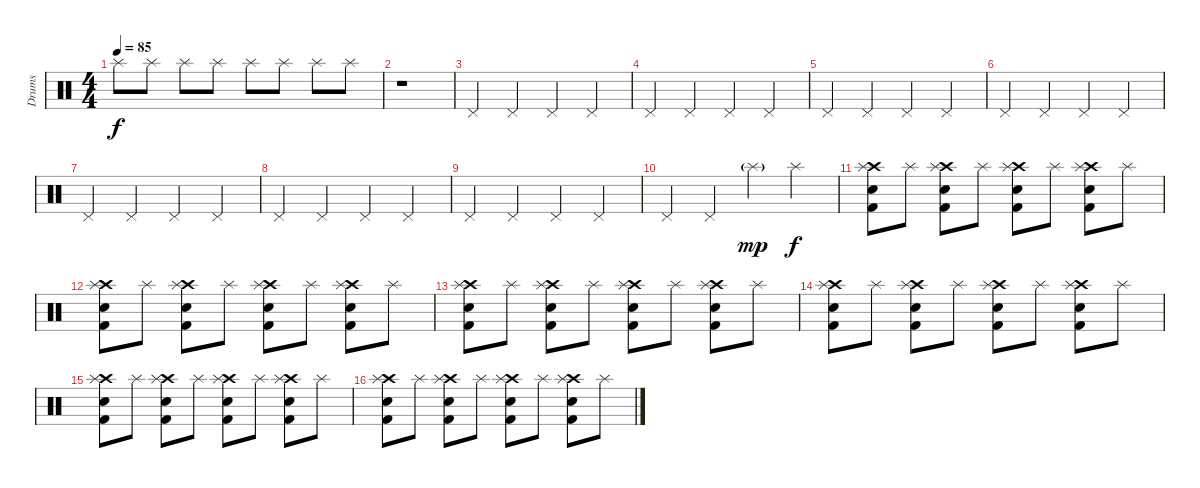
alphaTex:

\track ("Drums" "Drums") {instrument percussion}
\staff {score}
\articulation defaults
\ts (4 4)
\tempo 85
\clef neutral
\ks c "Splash (hit)".8{dy f} "Splash (hit)".8 "Splash (hit)".8 "Splash (hit)".8 "Splash (hit)".8 "Splash (hit)".8 "Splash (hit)".8 "Splash (hit)".8
|
r.1 |
"Pedal Hi-Hat (hit)".4 "Pedal Hi-Hat (hit)".4 "Pedal Hi-Hat (hit)".4 "Pedal Hi-Hat (hit)".4 |
"Pedal Hi-Hat (hit)".4 "Pedal Hi-Hat (hit)".4 "Pedal Hi-Hat (hit)".4 "Pedal Hi-Hat (hit)".4 |
"Pedal Hi-Hat (hit)".4 "Pedal Hi-Hat (hit)".4 "Pedal Hi-Hat (hit)".4 "Pedal Hi-Hat (hit)".4 |
"Pedal Hi-Hat (hit)".4 "Pedal Hi-Hat (hit)".4 "Pedal Hi-Hat (hit)".4 "Pedal Hi-Hat (hit)".4 |
"Pedal Hi-Hat (hit)".4 "Pedal Hi-Hat (hit)".4 "Pedal Hi-Hat (hit)".4 "Pedal Hi-Hat (hit)".4 |
"Pedal Hi-Hat (hit)".4 "Pedal Hi-Hat (hit)".4 "Pedal Hi-Hat (hit)".4 "Pedal Hi-Hat (hit)".4 |
"Pedal Hi-Hat (hit)".4 "Pedal Hi-Hat (hit)".4 "Pedal Hi-Hat (hit)".4 "Pedal Hi-Hat (hit)".4 |
"Pedal Hi-Hat (hit)".4 "Pedal Hi-Hat (hit)".4 "Splash (hit)"{g}.4{dy mp} "Splash (hit)".4{dy f} |
("Crash high (hit)" "Splash (hit)" "Snare (hit) 2" "Kick (hit) 2").8 "Splash (hit)".8 ("Crash high (hit)" "Splash (hit)" "Snare (hit) 2" "Kick (hit) 2").8 "Splash (hit)".8 ("Crash high (hit)" "Splash (hit)" "Snare (hit) 2" "Kick (hit) 2").8 "Splash (hit)".8 ("Crash high (hit)" "Splash (hit)" "Snare (hit) 2" "Kick (hit) 2").8 "Splash (hit)".8 |
("Crash high (hit)" "Splash (hit)" "Snare (hit) 2" "Kick (hit) 2").8 "Splash (hit)".8 ("Crash high (hit)" "Splash (hit)" "Snare (hit) 2" "Kick (hit) 2").8 "Splash (hit)".8 ("Crash high (hit)" "Splash (hit)" "Snare (hit) 2" "Kick (hit) 2").8 "Splash (hit)".8 ("Crash high (hit)" "Splash (hit)" "Snare (hit) 2" "Kick (hit) 2").8 "Splash (hit)".8 |
("Crash high (hit)" "Splash (hit)" "Snare (hit) 2" "Kick (hit) 2").8 "Splash (hit)".8 ("Crash high (hit)" "Splash (hit)" "Snare (hit) 2" "Kick (hit) 2").8 "Splash (hit)".8 ("Crash high (hit)" "Splash (hit)" "Snare (hit) 2" "Kick (hit) 2").8 "Splash (hit)".8 ("Crash high (hit)" "Splash (hit)" "Snare (hit) 2" "Kick (hit) 2").8 "Splash (hit)".8 |
("Crash high (hit)" "Splash (hit)" "Snare (hit) 2" "Kick (hit) 2").8 "Splash (hit)".8 ("Crash high (hit)" "Splash (hit)" "Snare (hit) 2" "Kick (hit) 2").8 "Splash (hit)".8 ("Crash high (hit)" "Splash (hit)" "Snare (hit) 2" "Kick (hit) 2").8 "Splash (hit)".8 ("Crash high (hit)" "Splash (hit)" "Snare (hit) 2" "Kick (hit) 2").8 "Splash (hit)".8 |
("Crash high (hit)" "Splash (hit)" "Snare (hit) 2" "Kick (hit) 2").8 "Splash (hit)".8 ("Crash high (hit)" "Splash (hit)" "Snare (hit) 2" "Kick (hit) 2").8 "Splash (hit)".8 ("Crash high (hit)" "Splash (hit)" "Snare (hit) 2" "Kick (hit) 2").8 "Splash (hit)".8 ("Crash high (hit)" "Splash (hit)" "Snare (hit) 2" "Kick (hit) 2").8 "Splash (hit)".8 |
("Crash high (hit)" "Splash (hit)" "Snare (hit) 2" "Kick (hit) 2").8 "Splash (hit)".8 ("Crash high (hit)" "Splash (hit)" "Snare (hit) 2" "Kick (hit) 2").8 "Splash (hit)".8 ("Crash high (hit)" "Splash (hit)" "Snare (hit) 2" "Kick (hit) 2").8 "Splash (hit)".8 ("Crash high (hit)" "Splash (hit)" "Snare (hit) 2" "Kick (hit) 2").8 "Splash (hit)".8
